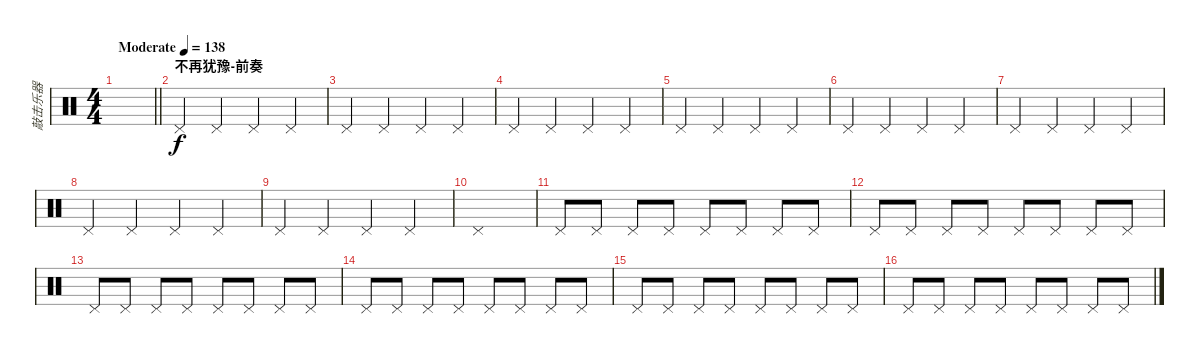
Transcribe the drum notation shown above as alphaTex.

\track ("敲击乐器" "敲击乐器") {instrument percussion}
\staff {score}
\articulation defaults
\ts (4 4)
\tempo (138 "Moderate")
\clef neutral
\barLineRight lightlight
\ks c
|
\section ("" "不再犹豫-前奏")
"Pedal Hi-Hat (hit)".4 "Pedal Hi-Hat (hit)".4 "Pedal Hi-Hat (hit)".4 "Pedal Hi-Hat (hit)".4 |
"Pedal Hi-Hat (hit)".4 "Pedal Hi-Hat (hit)".4 "Pedal Hi-Hat (hit)".4 "Pedal Hi-Hat (hit)".4 |
"Pedal Hi-Hat (hit)".4 "Pedal Hi-Hat (hit)".4 "Pedal Hi-Hat (hit)".4 "Pedal Hi-Hat (hit)".4 |
"Pedal Hi-Hat (hit)".4 "Pedal Hi-Hat (hit)".4 "Pedal Hi-Hat (hit)".4 "Pedal Hi-Hat (hit)".4 |
"Pedal Hi-Hat (hit)".4 "Pedal Hi-Hat (hit)".4 "Pedal Hi-Hat (hit)".4 "Pedal Hi-Hat (hit)".4 |
"Pedal Hi-Hat (hit)".4 "Pedal Hi-Hat (hit)".4 "Pedal Hi-Hat (hit)".4 "Pedal Hi-Hat (hit)".4 |
"Pedal Hi-Hat (hit)".4 "Pedal Hi-Hat (hit)".4 "Pedal Hi-Hat (hit)".4 "Pedal Hi-Hat (hit)".4 |
"Pedal Hi-Hat (hit)".4 "Pedal Hi-Hat (hit)".4 "Pedal Hi-Hat (hit)".4 "Pedal Hi-Hat (hit)".4 |
"Pedal Hi-Hat (hit)".1 |
"Pedal Hi-Hat (hit)".8 "Pedal Hi-Hat (hit)".8 "Pedal Hi-Hat (hit)".8 "Pedal Hi-Hat (hit)".8 "Pedal Hi-Hat (hit)".8 "Pedal Hi-Hat (hit)".8 "Pedal Hi-Hat (hit)".8 "Pedal Hi-Hat (hit)".8 |
"Pedal Hi-Hat (hit)".8 "Pedal Hi-Hat (hit)".8 "Pedal Hi-Hat (hit)".8 "Pedal Hi-Hat (hit)".8 "Pedal Hi-Hat (hit)".8 "Pedal Hi-Hat (hit)".8 "Pedal Hi-Hat (hit)".8 "Pedal Hi-Hat (hit)".8 |
"Pedal Hi-Hat (hit)".8 "Pedal Hi-Hat (hit)".8 "Pedal Hi-Hat (hit)".8 "Pedal Hi-Hat (hit)".8 "Pedal Hi-Hat (hit)".8 "Pedal Hi-Hat (hit)".8 "Pedal Hi-Hat (hit)".8 "Pedal Hi-Hat (hit)".8 |
"Pedal Hi-Hat (hit)".8 "Pedal Hi-Hat (hit)".8 "Pedal Hi-Hat (hit)".8 "Pedal Hi-Hat (hit)".8 "Pedal Hi-Hat (hit)".8 "Pedal Hi-Hat (hit)".8 "Pedal Hi-Hat (hit)".8 "Pedal Hi-Hat (hit)".8 |
"Pedal Hi-Hat (hit)".8 "Pedal Hi-Hat (hit)".8 "Pedal Hi-Hat (hit)".8 "Pedal Hi-Hat (hit)".8 "Pedal Hi-Hat (hit)".8 "Pedal Hi-Hat (hit)".8 "Pedal Hi-Hat (hit)".8 "Pedal Hi-Hat (hit)".8 |
"Pedal Hi-Hat (hit)".8 "Pedal Hi-Hat (hit)".8 "Pedal Hi-Hat (hit)".8 "Pedal Hi-Hat (hit)".8 "Pedal Hi-Hat (hit)".8 "Pedal Hi-Hat (hit)".8 "Pedal Hi-Hat (hit)".8 "Pedal Hi-Hat (hit)".8
